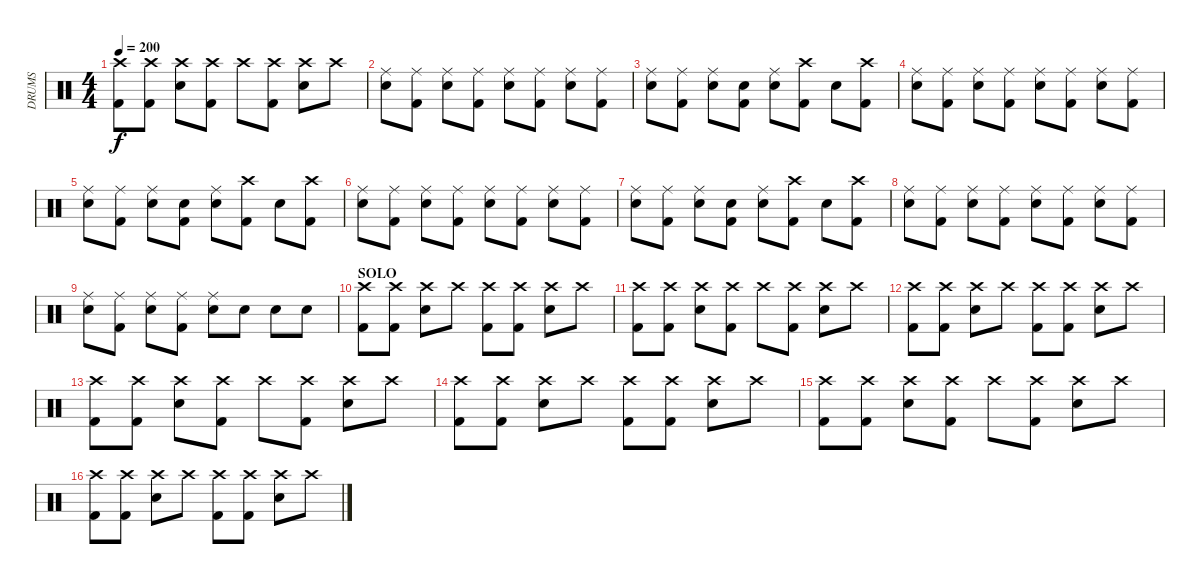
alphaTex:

\track ("DRUMS" "DRUMS") {instrument percussion}
\staff {score}
\articulation defaults
\ts (4 4)
\tempo 200
\clef neutral
\ks c
("Crash high (hit)" "Kick (hit) 2").8{dy f} ("Crash high (hit)" "Kick (hit) 2").8 ("Crash high (hit)" "Snare (hit) 2").8 ("Crash high (hit)" "Kick (hit) 2").8 "Crash high (hit)".8 ("Crash high (hit)" "Kick (hit) 2").8 ("Crash high (hit)" "Snare (hit) 2").8 "Crash high (hit)".8 |
("Ride (middle)" "Snare (hit) 2").8 ("Ride (middle)" "Kick (hit) 2").8 ("Ride (middle)" "Snare (hit) 2").8 ("Ride (middle)" "Kick (hit) 2").8 ("Ride (middle)" "Snare (hit) 2").8 ("Ride (middle)" "Kick (hit) 2").8 ("Ride (middle)" "Snare (hit) 2").8 ("Ride (middle)" "Kick (hit) 2").8 |
("Ride (middle)" "Snare (hit) 2").8 ("Ride (middle)" "Kick (hit) 2").8 ("Ride (middle)" "Snare (hit) 2").8 ("Snare (hit)" "Kick (hit) 2").8 ("Ride (middle)" "Snare (hit) 2").8 ("Crash high (hit)" "Kick (hit) 2").8 "Snare (hit) 2".8 ("Crash high (hit)" "Kick (hit) 2").8 |
("Ride (middle)" "Snare (hit) 2").8 ("Ride (middle)" "Kick (hit) 2").8 ("Ride (middle)" "Snare (hit) 2").8 ("Ride (middle)" "Kick (hit) 2").8 ("Ride (middle)" "Snare (hit) 2").8 ("Ride (middle)" "Kick (hit) 2").8 ("Ride (middle)" "Snare (hit) 2").8 ("Ride (middle)" "Kick (hit) 2").8 |
("Ride (middle)" "Snare (hit) 2").8 ("Ride (middle)" "Kick (hit) 2").8 ("Ride (middle)" "Snare (hit) 2").8 ("Snare (hit)" "Kick (hit) 2").8 ("Ride (middle)" "Snare (hit) 2").8 ("Crash high (hit)" "Kick (hit) 2").8 "Snare (hit) 2".8 ("Crash high (hit)" "Kick (hit) 2").8 |
("Ride (middle)" "Snare (hit) 2").8 ("Ride (middle)" "Kick (hit) 2").8 ("Ride (middle)" "Snare (hit) 2").8 ("Ride (middle)" "Kick (hit) 2").8 ("Ride (middle)" "Snare (hit) 2").8 ("Ride (middle)" "Kick (hit) 2").8 ("Ride (middle)" "Snare (hit) 2").8 ("Ride (middle)" "Kick (hit) 2").8 |
("Ride (middle)" "Snare (hit) 2").8 ("Ride (middle)" "Kick (hit) 2").8 ("Ride (middle)" "Snare (hit) 2").8 ("Snare (hit)" "Kick (hit) 2").8 ("Ride (middle)" "Snare (hit) 2").8 ("Crash high (hit)" "Kick (hit) 2").8 "Snare (hit) 2".8 ("Crash high (hit)" "Kick (hit) 2").8 |
("Ride (middle)" "Snare (hit) 2").8 ("Ride (middle)" "Kick (hit) 2").8 ("Ride (middle)" "Snare (hit) 2").8 ("Ride (middle)" "Kick (hit) 2").8 ("Ride (middle)" "Snare (hit) 2").8 ("Ride (middle)" "Kick (hit) 2").8 ("Ride (middle)" "Snare (hit) 2").8 ("Ride (middle)" "Kick (hit) 2").8 |
("Ride (middle)" "Snare (hit) 2").8 ("Ride (middle)" "Kick (hit) 2").8 ("Ride (middle)" "Snare (hit) 2").8 ("Ride (middle)" "Kick (hit) 2").8 ("Ride (middle)" "Snare (hit) 2").8 "Snare (hit) 2".8 "Snare (hit) 2".8 "Snare (hit) 2".8 |
\section ("" "SOLO")
("Crash high (hit)" "Kick (hit) 2").8 ("Crash high (hit)" "Kick (hit) 2").8 ("Crash high (hit)" "Snare (hit) 2").8 "Crash high (hit)".8 ("Crash high (hit)" "Kick (hit) 2").8 ("Crash high (hit)" "Kick (hit) 2").8 ("Crash high (hit)" "Snare (hit) 2").8 "Crash high (hit)".8 |
("Crash high (hit)" "Kick (hit) 2").8 ("Crash high (hit)" "Kick (hit) 2").8 ("Crash high (hit)" "Snare (hit) 2").8 ("Crash high (hit)" "Kick (hit) 2").8 "Crash high (hit)".8 ("Crash high (hit)" "Kick (hit) 2").8 ("Crash high (hit)" "Snare (hit) 2").8 "Crash high (hit)".8 |
("Crash high (hit)" "Kick (hit) 2").8 ("Crash high (hit)" "Kick (hit) 2").8 ("Crash high (hit)" "Snare (hit) 2").8 "Crash high (hit)".8 ("Crash high (hit)" "Kick (hit) 2").8 ("Crash high (hit)" "Kick (hit) 2").8 ("Crash high (hit)" "Snare (hit) 2").8 "Crash high (hit)".8 |
("Crash high (hit)" "Kick (hit) 2").8 ("Crash high (hit)" "Kick (hit) 2").8 ("Crash high (hit)" "Snare (hit) 2").8 ("Crash high (hit)" "Kick (hit) 2").8 "Crash high (hit)".8 ("Crash high (hit)" "Kick (hit) 2").8 ("Crash high (hit)" "Snare (hit) 2").8 "Crash high (hit)".8 |
("Crash high (hit)" "Kick (hit) 2").8 ("Crash high (hit)" "Kick (hit) 2").8 ("Crash high (hit)" "Snare (hit) 2").8 "Crash high (hit)".8 ("Crash high (hit)" "Kick (hit) 2").8 ("Crash high (hit)" "Kick (hit) 2").8 ("Crash high (hit)" "Snare (hit) 2").8 "Crash high (hit)".8 |
("Crash high (hit)" "Kick (hit) 2").8 ("Crash high (hit)" "Kick (hit) 2").8 ("Crash high (hit)" "Snare (hit) 2").8 ("Crash high (hit)" "Kick (hit) 2").8 "Crash high (hit)".8 ("Crash high (hit)" "Kick (hit) 2").8 ("Crash high (hit)" "Snare (hit) 2").8 "Crash high (hit)".8 |
("Crash high (hit)" "Kick (hit) 2").8 ("Crash high (hit)" "Kick (hit) 2").8 ("Crash high (hit)" "Snare (hit) 2").8 "Crash high (hit)".8 ("Crash high (hit)" "Kick (hit) 2").8 ("Crash high (hit)" "Kick (hit) 2").8 ("Crash high (hit)" "Snare (hit) 2").8 "Crash high (hit)".8
